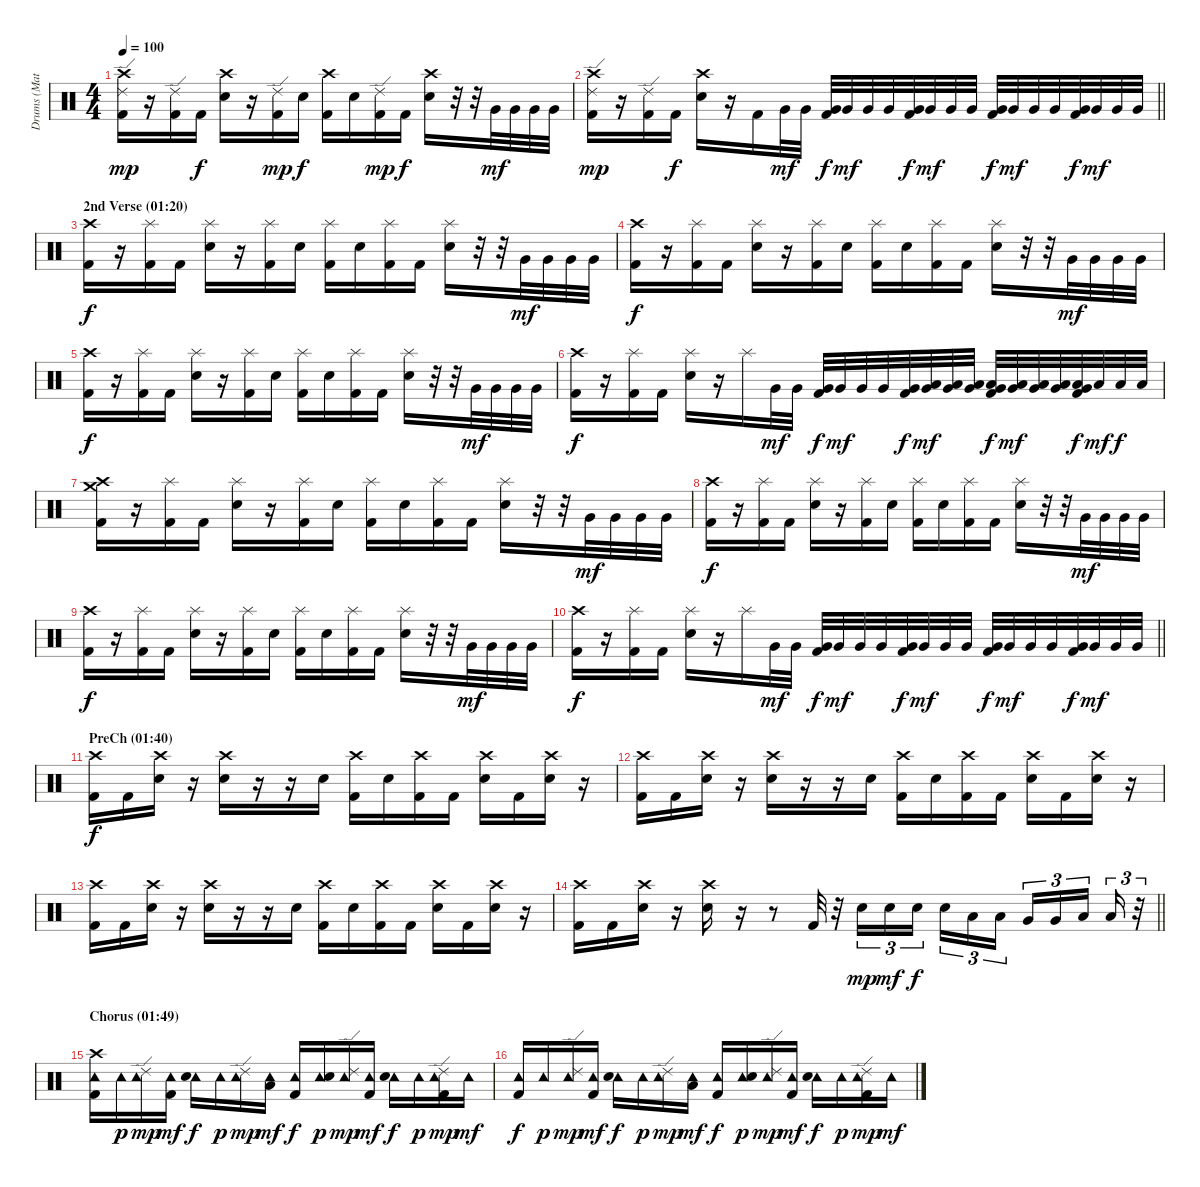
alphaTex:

\track ("Drums (Matt Sorum)" "Drums (Mat") {instrument percussion}
\staff {score}
\articulation defaults
\ts (4 4)
\tempo 100
\clef neutral
\ks c
("Crash high (hit)" "Ride (edge) 2" "Kick (hit) 2").16{dy mp} r.16 ("Ride (edge) 2" "Kick (hit) 2").16 "Kick (hit) 2".16{dy f} ("Crash high (hit)" "Electric Snare (hit)").16 r.16 ("Ride (edge) 2" "Kick (hit) 2").16{dy mp} "Electric Snare (hit)".16{dy f} ("Crash high (hit)" "Kick (hit) 2").16 "Electric Snare (hit)".16 ("Ride (edge) 2" "Kick (hit) 2").16{dy mp} "Kick (hit) 2".16{dy f} ("Crash high (hit)" "Electric Snare (hit)").16 r.32 r.32 "Very Low Tom (hit)".32{dy mf} "Very Low Tom (hit)".32 "Very Low Tom (hit)".32 "Very Low Tom (hit)".32 |
\barLineRight lightlight
("Crash high (hit)" "Ride (edge) 2" "Kick (hit) 2").16{dy mp} r.16 ("Ride (edge) 2" "Kick (hit) 2").16 "Kick (hit) 2".16{dy f} ("Crash high (hit)" "Electric Snare (hit)").16 r.16 "Kick (hit) 2".16 "Very Low Tom (hit)".32{dy mf} "Very Low Tom (hit)".32 ("Very Low Tom (hit)" "Kick (hit) 2").32{dy f} "Very Low Tom (hit)".32{dy mf} "Very Low Tom (hit)".32 "Very Low Tom (hit)".32 ("Very Low Tom (hit)" "Kick (hit) 2").32{dy f} "Very Low Tom (hit)".32{dy mf} "Very Low Tom (hit)".32 "Very Low Tom (hit)".32 ("Very Low Tom (hit)" "Kick (hit) 2").32{dy f} "Very Low Tom (hit)".32{dy mf} "Very Low Tom (hit)".32 "Very Low Tom (hit)".32 ("Very Low Tom (hit)" "Kick (hit) 2").32{dy f} "Very Low Tom (hit)".32{dy mf} "Very Low Tom (hit)".32 "Very Low Tom (hit)".32 |
\section ("" "2nd Verse (01:20)")
("Crash high (hit)" "Kick (hit) 2").16{dy f} r.16 ("Splash (hit)" "Kick (hit) 2").16 "Kick (hit) 2".16 ("Splash (hit)" "Electric Snare (hit)").16 r.16 ("Splash (hit)" "Kick (hit) 2").16 "Electric Snare (hit)".16 ("Splash (hit)" "Kick (hit) 2").16 "Electric Snare (hit)".16 ("Splash (hit)" "Kick (hit) 2").16 "Kick (hit) 2".16 ("Splash (hit)" "Electric Snare (hit)").16 r.32 r.32 "Very Low Tom (hit)".32{dy mf} "Very Low Tom (hit)".32 "Very Low Tom (hit)".32 "Very Low Tom (hit)".32 |
("Crash high (hit)" "Kick (hit) 2").16{dy f} r.16 ("Splash (hit)" "Kick (hit) 2").16 "Kick (hit) 2".16 ("Splash (hit)" "Electric Snare (hit)").16 r.16 ("Splash (hit)" "Kick (hit) 2").16 "Electric Snare (hit)".16 ("Splash (hit)" "Kick (hit) 2").16 "Electric Snare (hit)".16 ("Splash (hit)" "Kick (hit) 2").16 "Kick (hit) 2".16 ("Splash (hit)" "Electric Snare (hit)").16 r.32 r.32 "Very Low Tom (hit)".32{dy mf} "Very Low Tom (hit)".32 "Very Low Tom (hit)".32 "Very Low Tom (hit)".32 |
("Crash high (hit)" "Kick (hit) 2").16{dy f} r.16 ("Splash (hit)" "Kick (hit) 2").16 "Kick (hit) 2".16 ("Splash (hit)" "Electric Snare (hit)").16 r.16 ("Splash (hit)" "Kick (hit) 2").16 "Electric Snare (hit)".16 ("Splash (hit)" "Kick (hit) 2").16 "Electric Snare (hit)".16 ("Splash (hit)" "Kick (hit) 2").16 "Kick (hit) 2".16 ("Splash (hit)" "Electric Snare (hit)").16 r.32 r.32 "Very Low Tom (hit)".32{dy mf} "Very Low Tom (hit)".32 "Very Low Tom (hit)".32 "Very Low Tom (hit)".32 |
("Crash high (hit)" "Kick (hit) 2").16{dy f} r.16 ("Splash (hit)" "Kick (hit) 2").16 "Kick (hit) 2".16 ("Splash (hit)" "Electric Snare (hit)").16 r.16 "Splash (hit)".16 "Very Low Tom (hit)".32{dy mf} "Very Low Tom (hit)".32 ("Very Low Tom (hit)" "Kick (hit) 2").32{dy f} "Very Low Tom (hit)".32{dy mf} "Very Low Tom (hit)".32 "Very Low Tom (hit)".32 ("Very Low Tom (hit)" "Kick (hit) 2").32{dy f} ("Very Low Tom (hit)" "Low Floor Tom (hit)").32{dy mf} ("Very Low Tom (hit)" "Low Floor Tom (hit)").32 ("Very Low Tom (hit)" "Low Floor Tom (hit)").32 ("Very Low Tom (hit)" "Low Floor Tom (hit)" "Kick (hit) 2").32{dy f} ("Very Low Tom (hit)" "Low Floor Tom (hit)").32{dy mf} ("Very Low Tom (hit)" "Low Floor Tom (hit)").32 ("Very Low Tom (hit)" "Low Floor Tom (hit)").32 ("Very Low Tom (hit)" "Low Floor Tom (hit)" "Kick (hit) 2").32{dy f} "Low Floor Tom (hit)".32{dy mf} "Low Floor Tom (hit)".32{dy f} "Low Floor Tom (hit)".32 |
("Crash medium (hit)" "Crash high (hit)" "Kick (hit) 2").16 r.16 ("Splash (hit)" "Kick (hit) 2").16 "Kick (hit) 2".16 ("Splash (hit)" "Electric Snare (hit)").16 r.16 ("Splash (hit)" "Kick (hit) 2").16 "Electric Snare (hit)".16 ("Splash (hit)" "Kick (hit) 2").16 "Electric Snare (hit)".16 ("Splash (hit)" "Kick (hit) 2").16 "Kick (hit) 2".16 ("Splash (hit)" "Electric Snare (hit)").16 r.32 r.32 "Very Low Tom (hit)".32{dy mf} "Very Low Tom (hit)".32 "Very Low Tom (hit)".32 "Very Low Tom (hit)".32 |
("Crash high (hit)" "Kick (hit) 2").16{dy f} r.16 ("Splash (hit)" "Kick (hit) 2").16 "Kick (hit) 2".16 ("Splash (hit)" "Electric Snare (hit)").16 r.16 ("Splash (hit)" "Kick (hit) 2").16 "Electric Snare (hit)".16 ("Splash (hit)" "Kick (hit) 2").16 "Electric Snare (hit)".16 ("Splash (hit)" "Kick (hit) 2").16 "Kick (hit) 2".16 ("Splash (hit)" "Electric Snare (hit)").16 r.32 r.32 "Very Low Tom (hit)".32{dy mf} "Very Low Tom (hit)".32 "Very Low Tom (hit)".32 "Very Low Tom (hit)".32 |
("Crash high (hit)" "Kick (hit) 2").16{dy f} r.16 ("Splash (hit)" "Kick (hit) 2").16 "Kick (hit) 2".16 ("Splash (hit)" "Electric Snare (hit)").16 r.16 ("Splash (hit)" "Kick (hit) 2").16 "Electric Snare (hit)".16 ("Splash (hit)" "Kick (hit) 2").16 "Electric Snare (hit)".16 ("Splash (hit)" "Kick (hit) 2").16 "Kick (hit) 2".16 ("Splash (hit)" "Electric Snare (hit)").16 r.32 r.32 "Very Low Tom (hit)".32{dy mf} "Very Low Tom (hit)".32 "Very Low Tom (hit)".32 "Very Low Tom (hit)".32 |
\barLineRight lightlight
("Crash high (hit)" "Kick (hit) 2").16{dy f} r.16 ("Splash (hit)" "Kick (hit) 2").16 "Kick (hit) 2".16 ("Splash (hit)" "Electric Snare (hit)").16 r.16 "Splash (hit)".16 "Very Low Tom (hit)".32{dy mf} "Very Low Tom (hit)".32 ("Very Low Tom (hit)" "Kick (hit) 2").32{dy f} "Very Low Tom (hit)".32{dy mf} "Very Low Tom (hit)".32 "Very Low Tom (hit)".32 ("Very Low Tom (hit)" "Kick (hit) 2").32{dy f} "Very Low Tom (hit)".32{dy mf} "Very Low Tom (hit)".32 "Very Low Tom (hit)".32 ("Very Low Tom (hit)" "Kick (hit) 2").32{dy f} "Very Low Tom (hit)".32{dy mf} "Very Low Tom (hit)".32 "Very Low Tom (hit)".32 ("Very Low Tom (hit)" "Kick (hit) 2").32{dy f} "Very Low Tom (hit)".32{dy mf} "Very Low Tom (hit)".32 "Very Low Tom (hit)".32 |
\section ("" "PreCh (01:40)")
("Crash high (hit)" "Kick (hit) 2").16{dy f} "Kick (hit) 2".16 ("Crash high (hit)" "Electric Snare (hit)").16 r.16 ("Crash high (hit)" "Electric Snare (hit)").16 r.16 r.16 "Electric Snare (hit)".16 ("Crash high (hit)" "Kick (hit) 2").16 "Electric Snare (hit)".16 ("Crash high (hit)" "Kick (hit) 2").16 "Kick (hit) 2".16 ("Crash high (hit)" "Electric Snare (hit)").16 "Kick (hit) 2".16 ("Crash high (hit)" "Electric Snare (hit)").16 r.16 |
("Crash high (hit)" "Kick (hit) 2").16 "Kick (hit) 2".16 ("Crash high (hit)" "Electric Snare (hit)").16 r.16 ("Crash high (hit)" "Electric Snare (hit)").16 r.16 r.16 "Electric Snare (hit)".16 ("Crash high (hit)" "Kick (hit) 2").16 "Electric Snare (hit)".16 ("Crash high (hit)" "Kick (hit) 2").16 "Kick (hit) 2".16 ("Crash high (hit)" "Electric Snare (hit)").16 "Kick (hit) 2".16 ("Crash high (hit)" "Electric Snare (hit)").16 r.16 |
("Crash high (hit)" "Kick (hit) 2").16 "Kick (hit) 2".16 ("Crash high (hit)" "Electric Snare (hit)").16 r.16 ("Crash high (hit)" "Electric Snare (hit)").16 r.16 r.16 "Electric Snare (hit)".16 ("Crash high (hit)" "Kick (hit) 2").16 "Electric Snare (hit)".16 ("Crash high (hit)" "Kick (hit) 2").16 "Kick (hit) 2".16 ("Crash high (hit)" "Electric Snare (hit)").16 "Kick (hit) 2".16 ("Crash high (hit)" "Electric Snare (hit)").16 r.16 |
\barLineRight lightlight
("Crash high (hit)" "Kick (hit) 2").16 "Kick (hit) 2".16 ("Crash high (hit)" "Electric Snare (hit)").16 r.16 ("Crash high (hit)" "Electric Snare (hit)").16 r.16 r.8 "Kick (hit) 2".32 r.32 "Electric Snare (hit)".16{tu (3 2) dy mp} "Electric Snare (hit)".16{tu (3 2) dy mf} "Electric Snare (hit)".16{tu (3 2) dy f beam splitsecondary} "Electric Snare (hit)".16{tu (3 2)} "Low Tom (hit)".16{tu (3 2)} "Low Tom (hit)".16{tu (3 2) beam splitsecondary} "Very Low Tom (hit)".16{tu (3 2)} "Very Low Tom (hit)".16{tu (3 2)} "Low Floor Tom (hit)".16{tu (3 2) beam splitsecondary} "Low Floor Tom (hit)".16{tu (3 2)} r.32{tu (3 2)} |
\section ("" "Chorus (01:49)")
("Tambourine (hit)" "Crash high (hit)" "Kick (hit) 2").16 "Tambourine (hit)".16{dy p} ("Tambourine (hit)" "Ride (edge) 2").16{dy mp} ("Tambourine (hit)" "Kick (hit) 2").16{dy mf} ("Tambourine (hit)" "Electric Snare (hit)").16{dy f} "Tambourine (hit)".16{dy p} ("Tambourine (hit)" "Ride (edge) 2").16{dy mp} ("Tambourine (hit)" "Low Tom (hit)").16{dy mf} ("Tambourine (hit)" "Kick (hit) 2").16{dy f} ("Tambourine (hit)" "Electric Snare (hit)").16{dy p} ("Tambourine (hit)" "Ride (edge) 2").16{dy mp} ("Tambourine (hit)" "Kick (hit) 2").16{dy mf} ("Tambourine (hit)" "Electric Snare (hit)").16{dy f} "Tambourine (hit)".16{dy p} ("Tambourine (hit)" "Ride (edge) 2" "Kick (hit) 2").16{dy mp} "Tambourine (hit)".16{dy mf} |
("Tambourine (hit)" "Kick (hit) 2").16{dy f} "Tambourine (hit)".16{dy p} ("Tambourine (hit)" "Ride (edge) 2").16{dy mp} ("Tambourine (hit)" "Kick (hit) 2").16{dy mf} ("Tambourine (hit)" "Electric Snare (hit)").16{dy f} "Tambourine (hit)".16{dy p} ("Tambourine (hit)" "Ride (edge) 2").16{dy mp} ("Tambourine (hit)" "Low Tom (hit)").16{dy mf} ("Tambourine (hit)" "Kick (hit) 2").16{dy f} ("Tambourine (hit)" "Electric Snare (hit)").16{dy p} ("Tambourine (hit)" "Ride (edge) 2").16{dy mp} ("Tambourine (hit)" "Kick (hit) 2").16{dy mf} ("Tambourine (hit)" "Electric Snare (hit)").16{dy f} "Tambourine (hit)".16{dy p} ("Tambourine (hit)" "Ride (edge) 2" "Kick (hit) 2").16{dy mp} "Tambourine (hit)".16{dy mf}
